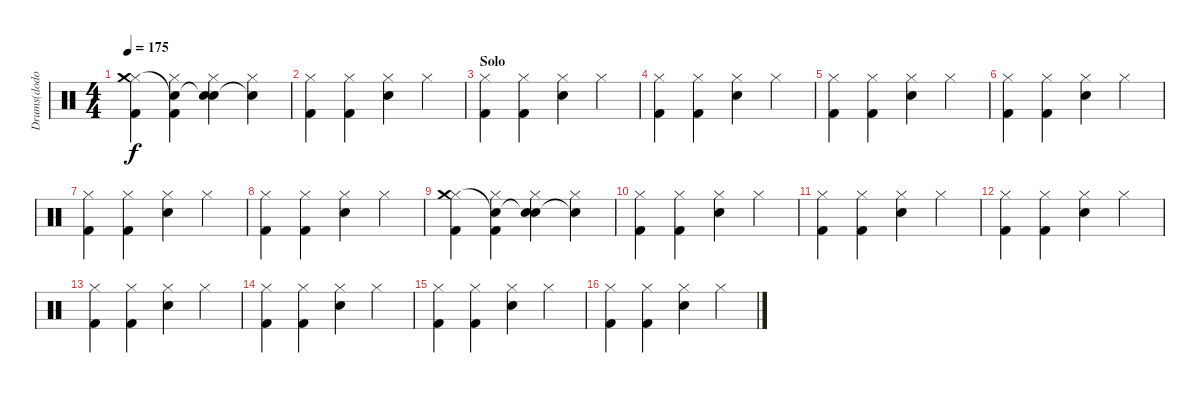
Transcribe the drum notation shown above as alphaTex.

\track ("Drums(dodo)" "Drums(dodo") {instrument percussion}
\staff {score}
\articulation defaults
\ts (4 4)
\tempo 175
\clef neutral
\ks c
("Hi-Hat (closed)" "Crash medium (hit)" "Kick (hit) 2").4{dy f} ("Hi-Hat (closed)" "Snare (hit) 2"{t} "Kick (hit) 2").4 ("Hi-Hat (closed)" "Snare (hit)"{t} "Snare (hit) 2").4 ("Hi-Hat (closed)" "Snare (hit)"{t}).4 |
("Hi-Hat (closed)" "Kick (hit) 2").4 ("Hi-Hat (closed)" "Kick (hit) 2").4 ("Hi-Hat (closed)" "Snare (hit) 2").4 "Hi-Hat (closed)".4 |
\section ("" "Solo")
("Hi-Hat (closed)" "Kick (hit) 2").4 ("Hi-Hat (closed)" "Kick (hit) 2").4 ("Hi-Hat (closed)" "Snare (hit) 2").4 "Hi-Hat (closed)".4 |
("Hi-Hat (closed)" "Kick (hit) 2").4 ("Hi-Hat (closed)" "Kick (hit) 2").4 ("Hi-Hat (closed)" "Snare (hit) 2").4 "Hi-Hat (closed)".4 |
("Hi-Hat (closed)" "Kick (hit) 2").4 ("Hi-Hat (closed)" "Kick (hit) 2").4 ("Hi-Hat (closed)" "Snare (hit) 2").4 "Hi-Hat (closed)".4 |
("Hi-Hat (closed)" "Kick (hit) 2").4 ("Hi-Hat (closed)" "Kick (hit) 2").4 ("Hi-Hat (closed)" "Snare (hit) 2").4 "Hi-Hat (closed)".4 |
("Hi-Hat (closed)" "Kick (hit) 2").4 ("Hi-Hat (closed)" "Kick (hit) 2").4 ("Hi-Hat (closed)" "Snare (hit) 2").4 "Hi-Hat (closed)".4 |
("Hi-Hat (closed)" "Kick (hit) 2").4 ("Hi-Hat (closed)" "Kick (hit) 2").4 ("Hi-Hat (closed)" "Snare (hit) 2").4 "Hi-Hat (closed)".4 |
("Hi-Hat (closed)" "Crash medium (hit)" "Kick (hit) 2").4 ("Hi-Hat (closed)" "Snare (hit) 2"{t} "Kick (hit) 2").4 ("Hi-Hat (closed)" "Snare (hit)"{t} "Snare (hit) 2").4 ("Hi-Hat (closed)" "Snare (hit)"{t}).4 |
("Hi-Hat (closed)" "Kick (hit) 2").4 ("Hi-Hat (closed)" "Kick (hit) 2").4 ("Hi-Hat (closed)" "Snare (hit) 2").4 "Hi-Hat (closed)".4 |
("Hi-Hat (closed)" "Kick (hit) 2").4 ("Hi-Hat (closed)" "Kick (hit) 2").4 ("Hi-Hat (closed)" "Snare (hit) 2").4 "Hi-Hat (closed)".4 |
("Hi-Hat (closed)" "Kick (hit) 2").4 ("Hi-Hat (closed)" "Kick (hit) 2").4 ("Hi-Hat (closed)" "Snare (hit) 2").4 "Hi-Hat (closed)".4 |
("Hi-Hat (closed)" "Kick (hit) 2").4 ("Hi-Hat (closed)" "Kick (hit) 2").4 ("Hi-Hat (closed)" "Snare (hit) 2").4 "Hi-Hat (closed)".4 |
("Hi-Hat (closed)" "Kick (hit) 2").4 ("Hi-Hat (closed)" "Kick (hit) 2").4 ("Hi-Hat (closed)" "Snare (hit) 2").4 "Hi-Hat (closed)".4 |
("Hi-Hat (closed)" "Kick (hit) 2").4 ("Hi-Hat (closed)" "Kick (hit) 2").4 ("Hi-Hat (closed)" "Snare (hit) 2").4 "Hi-Hat (closed)".4 |
("Hi-Hat (closed)" "Kick (hit) 2").4 ("Hi-Hat (closed)" "Kick (hit) 2").4 ("Hi-Hat (closed)" "Snare (hit) 2").4 "Hi-Hat (closed)".4
